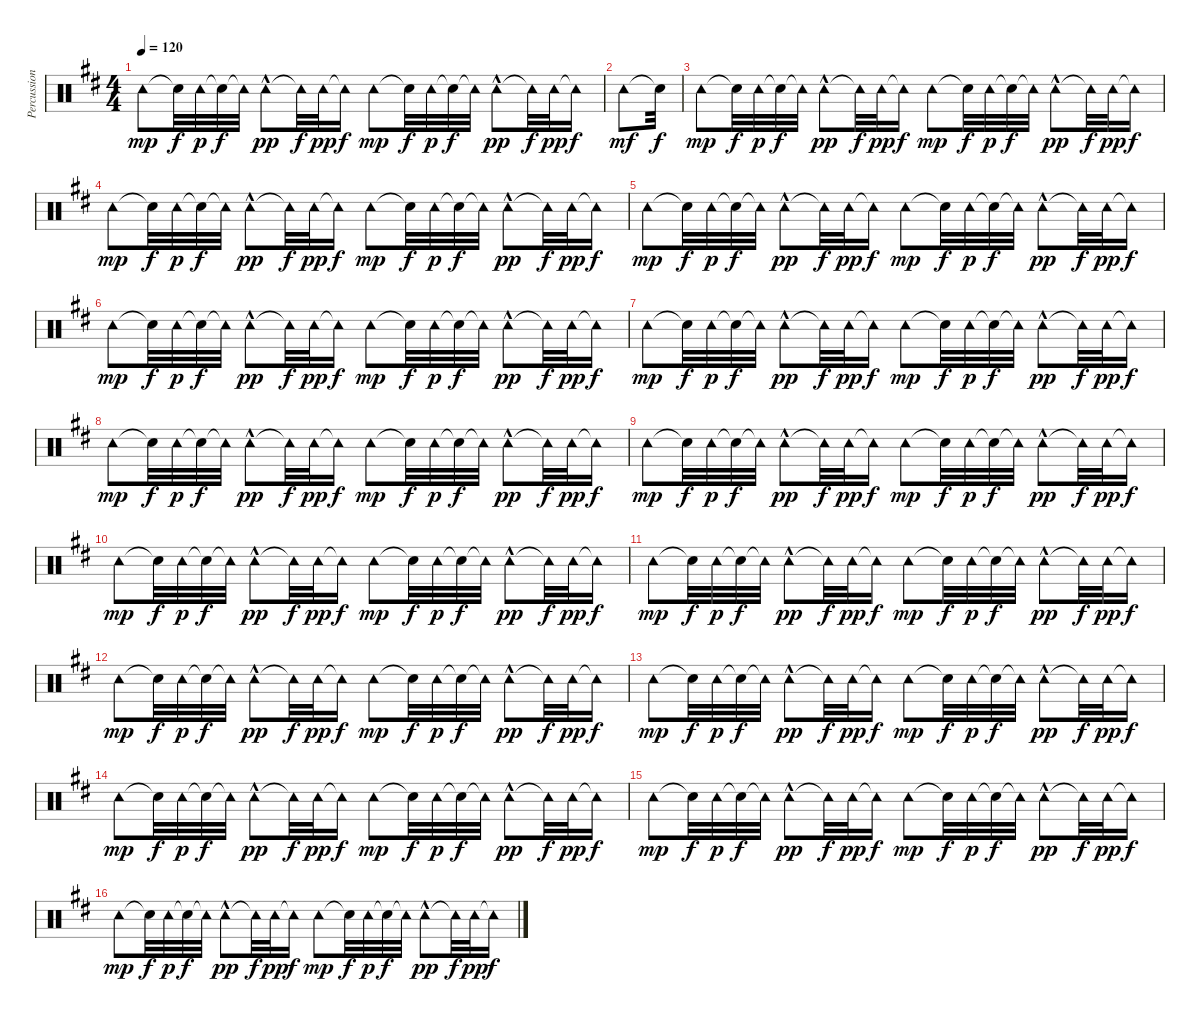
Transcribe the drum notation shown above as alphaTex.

\track ("Percussion" "Percussion") {instrument percussion}
\staff {score}
\articulation defaults
\ts (4 4)
\tempo 120
\clef neutral
\ks d "Tambourine (hit)".8{dy mp} "Snare (hit)"{t}.32{dy f} "Tambourine (hit)".32{dy p} "Snare (hit)"{t}.32{dy f} "Tambourine (hit)"{t}.32 "Tambourine (hit)"{hac}.8{dy pp} "Tambourine (hit)"{t}.32{dy f} "Tambourine (hit)".32{dy pp} "Tambourine (hit)"{t}.16{dy f} "Tambourine (hit)".8{dy mp} "Snare (hit)"{t}.32{dy f} "Tambourine (hit)".32{dy p} "Snare (hit)"{t}.32{dy f} "Tambourine (hit)"{t}.32 "Tambourine (hit)"{hac}.8{dy pp} "Tambourine (hit)"{t}.32{dy f} "Tambourine (hit)".32{dy pp} "Tambourine (hit)"{t}.16{dy f}
|
"Tambourine (hit)".8{dy mf} "Snare (hit)"{t}.32{dy f} |
"Tambourine (hit)".8{dy mp} "Snare (hit)"{t}.32{dy f} "Tambourine (hit)".32{dy p} "Snare (hit)"{t}.32{dy f} "Tambourine (hit)"{t}.32 "Tambourine (hit)"{hac}.8{dy pp} "Tambourine (hit)"{t}.32{dy f} "Tambourine (hit)".32{dy pp} "Tambourine (hit)"{t}.16{dy f} "Tambourine (hit)".8{dy mp} "Snare (hit)"{t}.32{dy f} "Tambourine (hit)".32{dy p} "Snare (hit)"{t}.32{dy f} "Tambourine (hit)"{t}.32 "Tambourine (hit)"{hac}.8{dy pp} "Tambourine (hit)"{t}.32{dy f} "Tambourine (hit)".32{dy pp} "Tambourine (hit)"{t}.16{dy f} |
"Tambourine (hit)".8{dy mp} "Snare (hit)"{t}.32{dy f} "Tambourine (hit)".32{dy p} "Snare (hit)"{t}.32{dy f} "Tambourine (hit)"{t}.32 "Tambourine (hit)"{hac}.8{dy pp} "Tambourine (hit)"{t}.32{dy f} "Tambourine (hit)".32{dy pp} "Tambourine (hit)"{t}.16{dy f} "Tambourine (hit)".8{dy mp} "Snare (hit)"{t}.32{dy f} "Tambourine (hit)".32{dy p} "Snare (hit)"{t}.32{dy f} "Tambourine (hit)"{t}.32 "Tambourine (hit)"{hac}.8{dy pp} "Tambourine (hit)"{t}.32{dy f} "Tambourine (hit)".32{dy pp} "Tambourine (hit)"{t}.16{dy f} |
"Tambourine (hit)".8{dy mp} "Snare (hit)"{t}.32{dy f} "Tambourine (hit)".32{dy p} "Snare (hit)"{t}.32{dy f} "Tambourine (hit)"{t}.32 "Tambourine (hit)"{hac}.8{dy pp} "Tambourine (hit)"{t}.32{dy f} "Tambourine (hit)".32{dy pp} "Tambourine (hit)"{t}.16{dy f} "Tambourine (hit)".8{dy mp} "Snare (hit)"{t}.32{dy f} "Tambourine (hit)".32{dy p} "Snare (hit)"{t}.32{dy f} "Tambourine (hit)"{t}.32 "Tambourine (hit)"{hac}.8{dy pp} "Tambourine (hit)"{t}.32{dy f} "Tambourine (hit)".32{dy pp} "Tambourine (hit)"{t}.16{dy f} |
"Tambourine (hit)".8{dy mp} "Snare (hit)"{t}.32{dy f} "Tambourine (hit)".32{dy p} "Snare (hit)"{t}.32{dy f} "Tambourine (hit)"{t}.32 "Tambourine (hit)"{hac}.8{dy pp} "Tambourine (hit)"{t}.32{dy f} "Tambourine (hit)".32{dy pp} "Tambourine (hit)"{t}.16{dy f} "Tambourine (hit)".8{dy mp} "Snare (hit)"{t}.32{dy f} "Tambourine (hit)".32{dy p} "Snare (hit)"{t}.32{dy f} "Tambourine (hit)"{t}.32 "Tambourine (hit)"{hac}.8{dy pp} "Tambourine (hit)"{t}.32{dy f} "Tambourine (hit)".32{dy pp} "Tambourine (hit)"{t}.16{dy f} |
"Tambourine (hit)".8{dy mp} "Snare (hit)"{t}.32{dy f} "Tambourine (hit)".32{dy p} "Snare (hit)"{t}.32{dy f} "Tambourine (hit)"{t}.32 "Tambourine (hit)"{hac}.8{dy pp} "Tambourine (hit)"{t}.32{dy f} "Tambourine (hit)".32{dy pp} "Tambourine (hit)"{t}.16{dy f} "Tambourine (hit)".8{dy mp} "Snare (hit)"{t}.32{dy f} "Tambourine (hit)".32{dy p} "Snare (hit)"{t}.32{dy f} "Tambourine (hit)"{t}.32 "Tambourine (hit)"{hac}.8{dy pp} "Tambourine (hit)"{t}.32{dy f} "Tambourine (hit)".32{dy pp} "Tambourine (hit)"{t}.16{dy f} |
"Tambourine (hit)".8{dy mp} "Snare (hit)"{t}.32{dy f} "Tambourine (hit)".32{dy p} "Snare (hit)"{t}.32{dy f} "Tambourine (hit)"{t}.32 "Tambourine (hit)"{hac}.8{dy pp} "Tambourine (hit)"{t}.32{dy f} "Tambourine (hit)".32{dy pp} "Tambourine (hit)"{t}.16{dy f} "Tambourine (hit)".8{dy mp} "Snare (hit)"{t}.32{dy f} "Tambourine (hit)".32{dy p} "Snare (hit)"{t}.32{dy f} "Tambourine (hit)"{t}.32 "Tambourine (hit)"{hac}.8{dy pp} "Tambourine (hit)"{t}.32{dy f} "Tambourine (hit)".32{dy pp} "Tambourine (hit)"{t}.16{dy f} |
"Tambourine (hit)".8{dy mp} "Snare (hit)"{t}.32{dy f} "Tambourine (hit)".32{dy p} "Snare (hit)"{t}.32{dy f} "Tambourine (hit)"{t}.32 "Tambourine (hit)"{hac}.8{dy pp} "Tambourine (hit)"{t}.32{dy f} "Tambourine (hit)".32{dy pp} "Tambourine (hit)"{t}.16{dy f} "Tambourine (hit)".8{dy mp} "Snare (hit)"{t}.32{dy f} "Tambourine (hit)".32{dy p} "Snare (hit)"{t}.32{dy f} "Tambourine (hit)"{t}.32 "Tambourine (hit)"{hac}.8{dy pp} "Tambourine (hit)"{t}.32{dy f} "Tambourine (hit)".32{dy pp} "Tambourine (hit)"{t}.16{dy f} |
"Tambourine (hit)".8{dy mp} "Snare (hit)"{t}.32{dy f} "Tambourine (hit)".32{dy p} "Snare (hit)"{t}.32{dy f} "Tambourine (hit)"{t}.32 "Tambourine (hit)"{hac}.8{dy pp} "Tambourine (hit)"{t}.32{dy f} "Tambourine (hit)".32{dy pp} "Tambourine (hit)"{t}.16{dy f} "Tambourine (hit)".8{dy mp} "Snare (hit)"{t}.32{dy f} "Tambourine (hit)".32{dy p} "Snare (hit)"{t}.32{dy f} "Tambourine (hit)"{t}.32 "Tambourine (hit)"{hac}.8{dy pp} "Tambourine (hit)"{t}.32{dy f} "Tambourine (hit)".32{dy pp} "Tambourine (hit)"{t}.16{dy f} |
"Tambourine (hit)".8{dy mp} "Snare (hit)"{t}.32{dy f} "Tambourine (hit)".32{dy p} "Snare (hit)"{t}.32{dy f} "Tambourine (hit)"{t}.32 "Tambourine (hit)"{hac}.8{dy pp} "Tambourine (hit)"{t}.32{dy f} "Tambourine (hit)".32{dy pp} "Tambourine (hit)"{t}.16{dy f} "Tambourine (hit)".8{dy mp} "Snare (hit)"{t}.32{dy f} "Tambourine (hit)".32{dy p} "Snare (hit)"{t}.32{dy f} "Tambourine (hit)"{t}.32 "Tambourine (hit)"{hac}.8{dy pp} "Tambourine (hit)"{t}.32{dy f} "Tambourine (hit)".32{dy pp} "Tambourine (hit)"{t}.16{dy f} |
"Tambourine (hit)".8{dy mp} "Snare (hit)"{t}.32{dy f} "Tambourine (hit)".32{dy p} "Snare (hit)"{t}.32{dy f} "Tambourine (hit)"{t}.32 "Tambourine (hit)"{hac}.8{dy pp} "Tambourine (hit)"{t}.32{dy f} "Tambourine (hit)".32{dy pp} "Tambourine (hit)"{t}.16{dy f} "Tambourine (hit)".8{dy mp} "Snare (hit)"{t}.32{dy f} "Tambourine (hit)".32{dy p} "Snare (hit)"{t}.32{dy f} "Tambourine (hit)"{t}.32 "Tambourine (hit)"{hac}.8{dy pp} "Tambourine (hit)"{t}.32{dy f} "Tambourine (hit)".32{dy pp} "Tambourine (hit)"{t}.16{dy f} |
"Tambourine (hit)".8{dy mp} "Snare (hit)"{t}.32{dy f} "Tambourine (hit)".32{dy p} "Snare (hit)"{t}.32{dy f} "Tambourine (hit)"{t}.32 "Tambourine (hit)"{hac}.8{dy pp} "Tambourine (hit)"{t}.32{dy f} "Tambourine (hit)".32{dy pp} "Tambourine (hit)"{t}.16{dy f} "Tambourine (hit)".8{dy mp} "Snare (hit)"{t}.32{dy f} "Tambourine (hit)".32{dy p} "Snare (hit)"{t}.32{dy f} "Tambourine (hit)"{t}.32 "Tambourine (hit)"{hac}.8{dy pp} "Tambourine (hit)"{t}.32{dy f} "Tambourine (hit)".32{dy pp} "Tambourine (hit)"{t}.16{dy f} |
"Tambourine (hit)".8{dy mp} "Snare (hit)"{t}.32{dy f} "Tambourine (hit)".32{dy p} "Snare (hit)"{t}.32{dy f} "Tambourine (hit)"{t}.32 "Tambourine (hit)"{hac}.8{dy pp} "Tambourine (hit)"{t}.32{dy f} "Tambourine (hit)".32{dy pp} "Tambourine (hit)"{t}.16{dy f} "Tambourine (hit)".8{dy mp} "Snare (hit)"{t}.32{dy f} "Tambourine (hit)".32{dy p} "Snare (hit)"{t}.32{dy f} "Tambourine (hit)"{t}.32 "Tambourine (hit)"{hac}.8{dy pp} "Tambourine (hit)"{t}.32{dy f} "Tambourine (hit)".32{dy pp} "Tambourine (hit)"{t}.16{dy f} |
"Tambourine (hit)".8{dy mp} "Snare (hit)"{t}.32{dy f} "Tambourine (hit)".32{dy p} "Snare (hit)"{t}.32{dy f} "Tambourine (hit)"{t}.32 "Tambourine (hit)"{hac}.8{dy pp} "Tambourine (hit)"{t}.32{dy f} "Tambourine (hit)".32{dy pp} "Tambourine (hit)"{t}.16{dy f} "Tambourine (hit)".8{dy mp} "Snare (hit)"{t}.32{dy f} "Tambourine (hit)".32{dy p} "Snare (hit)"{t}.32{dy f} "Tambourine (hit)"{t}.32 "Tambourine (hit)"{hac}.8{dy pp} "Tambourine (hit)"{t}.32{dy f} "Tambourine (hit)".32{dy pp} "Tambourine (hit)"{t}.16{dy f} |
"Tambourine (hit)".8{dy mp} "Snare (hit)"{t}.32{dy f} "Tambourine (hit)".32{dy p} "Snare (hit)"{t}.32{dy f} "Tambourine (hit)"{t}.32 "Tambourine (hit)"{hac}.8{dy pp} "Tambourine (hit)"{t}.32{dy f} "Tambourine (hit)".32{dy pp} "Tambourine (hit)"{t}.16{dy f} "Tambourine (hit)".8{dy mp} "Snare (hit)"{t}.32{dy f} "Tambourine (hit)".32{dy p} "Snare (hit)"{t}.32{dy f} "Tambourine (hit)"{t}.32 "Tambourine (hit)"{hac}.8{dy pp} "Tambourine (hit)"{t}.32{dy f} "Tambourine (hit)".32{dy pp} "Tambourine (hit)"{t}.16{dy f}
